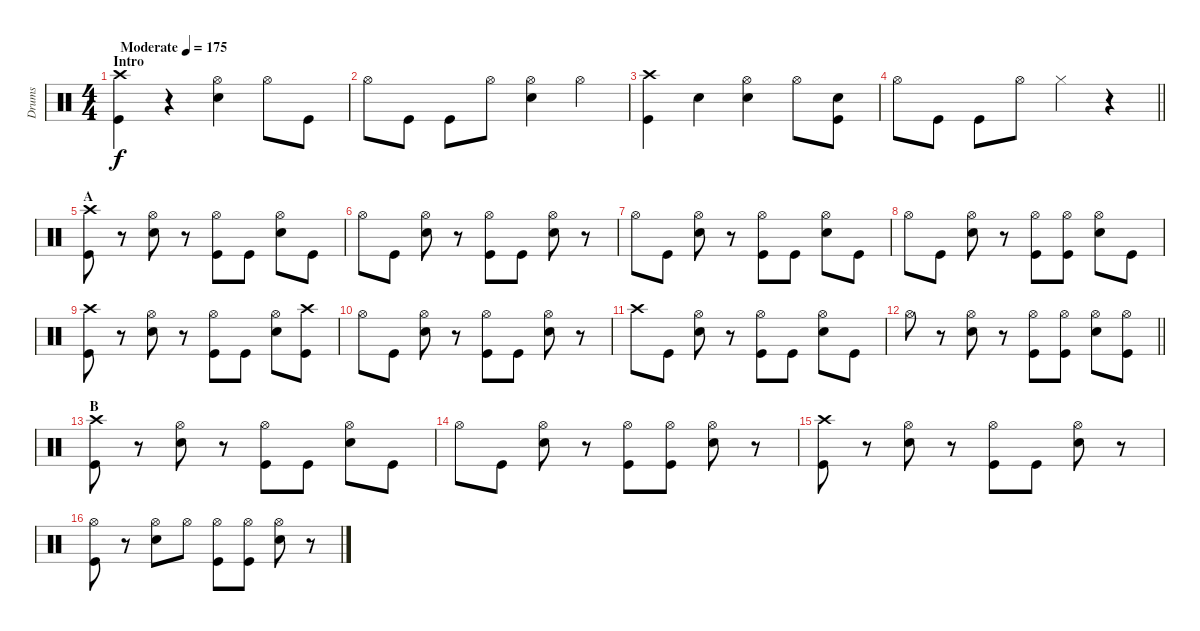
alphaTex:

\track ("Drums" "Drums") {instrument percussion}
\staff {score}
\articulation defaults
\ts (4 4)
\section ("" "Intro")
\tempo (175 "Moderate")
\clef neutral
\ks c
("Crash high (hit)" "Kick (hit)").4{dy f} r.4 ("Hi-Hat (open)" "Snare (hit) 2").4 "Hi-Hat (open)".8 "Kick (hit)".8 |
"Hi-Hat (open)".8 "Kick (hit)".8 "Kick (hit)".8 "Hi-Hat (open)".8 ("Hi-Hat (open)" "Snare (hit) 2").4 "Hi-Hat (open)".4 |
("Crash high (hit)" "Kick (hit)").4 "Snare (hit) 2".4 ("Hi-Hat (open)" "Snare (hit) 2").4 "Hi-Hat (open)".8 ("Snare (hit) 2" "Kick (hit)").8 |
\barLineRight lightlight "Hi-Hat (open)".8 "Kick (hit)".8 "Kick (hit)".8 "Hi-Hat (open)".8 "Hi-Hat (closed)".4
r.4 |
\section ("" "A")
("Crash high (hit)" "Kick (hit)").8 r.8 ("Hi-Hat (open)" "Snare (hit) 2").8 r.8 ("Hi-Hat (open)" "Kick (hit)").8 "Kick (hit)".8 ("Hi-Hat (open)" "Snare (hit) 2").8 "Kick (hit)".8 |
"Hi-Hat (open)".8 "Kick (hit)".8 ("Hi-Hat (open)" "Snare (hit) 2").8 r.8 ("Hi-Hat (open)" "Kick (hit)").8 "Kick (hit)".8 ("Hi-Hat (open)" "Snare (hit) 2").8 r.8 |
"Hi-Hat (open)".8 "Kick (hit)".8 ("Hi-Hat (open)" "Snare (hit) 2").8 r.8 ("Hi-Hat (open)" "Kick (hit)").8 "Kick (hit)".8 ("Hi-Hat (open)" "Snare (hit) 2").8 "Kick (hit)".8 |
"Hi-Hat (open)".8 "Kick (hit)".8 ("Hi-Hat (open)" "Snare (hit) 2").8 r.8 ("Hi-Hat (open)" "Kick (hit)").8 ("Hi-Hat (open)" "Kick (hit)").8 ("Hi-Hat (open)" "Snare (hit) 2").8 "Kick (hit)".8 |
("Crash high (hit)" "Kick (hit)").8 r.8 ("Hi-Hat (open)" "Snare (hit) 2").8 r.8 ("Hi-Hat (open)" "Kick (hit)").8 "Kick (hit)".8 ("Hi-Hat (open)" "Snare (hit) 2").8 ("Crash high (hit)" "Kick (hit)").8 |
"Hi-Hat (open)".8 "Kick (hit)".8 ("Hi-Hat (open)" "Snare (hit) 2").8 r.8 ("Hi-Hat (open)" "Kick (hit)").8 "Kick (hit)".8 ("Hi-Hat (open)" "Snare (hit) 2").8 r.8 |
"Crash high (hit)".8 "Kick (hit)".8 ("Hi-Hat (open)" "Snare (hit) 2").8 r.8 ("Hi-Hat (open)" "Kick (hit)").8 "Kick (hit)".8 ("Hi-Hat (open)" "Snare (hit) 2").8 "Kick (hit)".8 |
\barLineRight lightlight "Hi-Hat (open)".8
r.8 ("Hi-Hat (open)" "Snare (hit) 2").8 r.8 ("Hi-Hat (open)" "Kick (hit)").8 ("Hi-Hat (open)" "Kick (hit)").8 ("Hi-Hat (open)" "Snare (hit) 2").8 ("Hi-Hat (open)" "Kick (hit)").8 |
\section ("" "B")
("Crash high (hit)" "Kick (hit)").8 r.8 ("Hi-Hat (open)" "Snare (hit) 2").8 r.8 ("Hi-Hat (open)" "Kick (hit)").8 "Kick (hit)".8 ("Hi-Hat (open)" "Snare (hit) 2").8 "Kick (hit)".8 |
"Hi-Hat (open)".8 "Kick (hit)".8 ("Hi-Hat (open)" "Snare (hit) 2").8 r.8 ("Hi-Hat (open)" "Kick (hit)").8 ("Hi-Hat (open)" "Kick (hit)").8 ("Hi-Hat (open)" "Snare (hit) 2").8 r.8 |
("Crash high (hit)" "Kick (hit)").8 r.8 ("Hi-Hat (open)" "Snare (hit) 2").8 r.8 ("Hi-Hat (open)" "Kick (hit)").8 "Kick (hit)".8 ("Hi-Hat (open)" "Snare (hit) 2").8 r.8 |
("Hi-Hat (open)" "Kick (hit)").8 r.8 ("Hi-Hat (open)" "Snare (hit) 2").8 "Hi-Hat (open)".8 ("Hi-Hat (open)" "Kick (hit)").8 ("Hi-Hat (open)" "Kick (hit)").8 ("Hi-Hat (open)" "Snare (hit) 2").8 r.8
